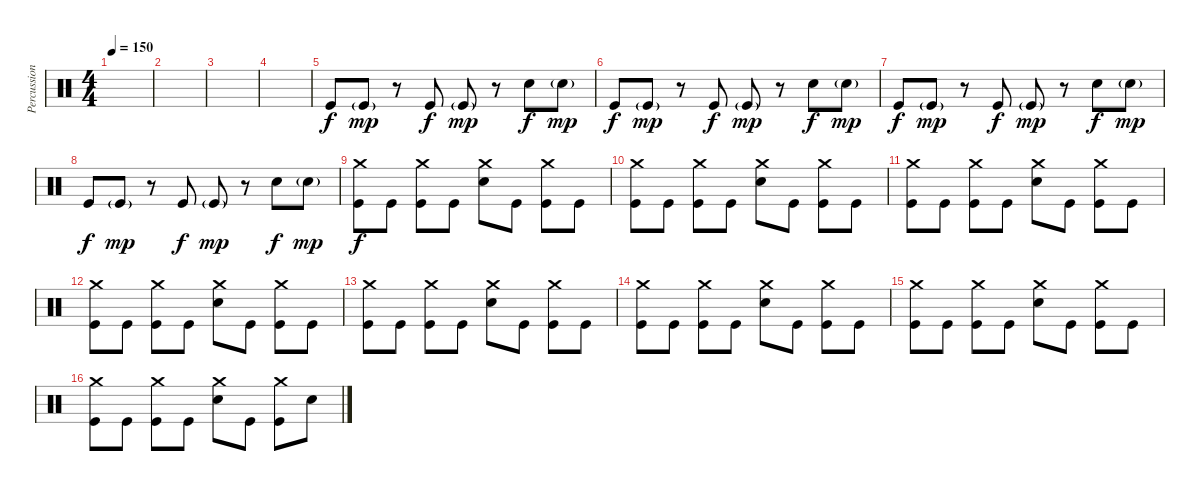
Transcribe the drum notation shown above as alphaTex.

\track ("Percussion" "Percussion") {instrument percussion}
\staff {score}
\articulation defaults
\ts (4 4)
\tempo 150
\clef neutral
\ks c
|
|
|
|
"Kick (hit)".8 "Kick (hit)"{g}.8{dy mp} r.8 "Kick (hit)".8{dy f} "Kick (hit)"{g}.8{dy mp} r.8 "Snare (hit) 2".8{dy f} "Snare (hit) 2"{g}.8{dy mp} |
"Kick (hit)".8{dy f} "Kick (hit)"{g}.8{dy mp} r.8 "Kick (hit)".8{dy f} "Kick (hit)"{g}.8{dy mp} r.8 "Snare (hit) 2".8{dy f} "Snare (hit) 2"{g}.8{dy mp} |
"Kick (hit)".8{dy f} "Kick (hit)"{g}.8{dy mp} r.8 "Kick (hit)".8{dy f} "Kick (hit)"{g}.8{dy mp} r.8 "Snare (hit) 2".8{dy f} "Snare (hit) 2"{g}.8{dy mp} |
"Kick (hit)".8{dy f} "Kick (hit)"{g}.8{dy mp} r.8 "Kick (hit)".8{dy f} "Kick (hit)"{g}.8{dy mp} r.8 "Snare (hit) 2".8{dy f} "Snare (hit) 2"{g}.8{dy mp} |
("Crash medium (hit)" "Kick (hit)").8{dy f} "Kick (hit)".8 ("Crash medium (hit)" "Kick (hit)").8 "Kick (hit)".8 ("Crash medium (hit)" "Electric Snare (hit)").8 "Kick (hit)".8 ("Crash medium (hit)" "Kick (hit)").8 "Kick (hit)".8 |
("Crash medium (hit)" "Kick (hit)").8 "Kick (hit)".8 ("Crash medium (hit)" "Kick (hit)").8 "Kick (hit)".8 ("Crash medium (hit)" "Electric Snare (hit)").8 "Kick (hit)".8 ("Crash medium (hit)" "Kick (hit)").8 "Kick (hit)".8 |
("Crash medium (hit)" "Kick (hit)").8 "Kick (hit)".8 ("Crash medium (hit)" "Kick (hit)").8 "Kick (hit)".8 ("Crash medium (hit)" "Electric Snare (hit)").8 "Kick (hit)".8 ("Crash medium (hit)" "Kick (hit)").8 "Kick (hit)".8 |
("Crash medium (hit)" "Kick (hit)").8 "Kick (hit)".8 ("Crash medium (hit)" "Kick (hit)").8 "Kick (hit)".8 ("Crash medium (hit)" "Electric Snare (hit)").8 "Kick (hit)".8 ("Crash medium (hit)" "Kick (hit)").8 "Kick (hit)".8 |
("Crash medium (hit)" "Kick (hit)").8 "Kick (hit)".8 ("Crash medium (hit)" "Kick (hit)").8 "Kick (hit)".8 ("Crash medium (hit)" "Electric Snare (hit)").8 "Kick (hit)".8 ("Crash medium (hit)" "Kick (hit)").8 "Kick (hit)".8 |
("Crash medium (hit)" "Kick (hit)").8 "Kick (hit)".8 ("Crash medium (hit)" "Kick (hit)").8 "Kick (hit)".8 ("Crash medium (hit)" "Electric Snare (hit)").8 "Kick (hit)".8 ("Crash medium (hit)" "Kick (hit)").8 "Kick (hit)".8 |
("Crash medium (hit)" "Kick (hit)").8 "Kick (hit)".8 ("Crash medium (hit)" "Kick (hit)").8 "Kick (hit)".8 ("Crash medium (hit)" "Electric Snare (hit)").8 "Kick (hit)".8 ("Crash medium (hit)" "Kick (hit)").8 "Kick (hit)".8 |
("Crash medium (hit)" "Kick (hit)").8 "Kick (hit)".8 ("Crash medium (hit)" "Kick (hit)").8 "Kick (hit)".8 ("Crash medium (hit)" "Electric Snare (hit)").8 "Kick (hit)".8 ("Crash medium (hit)" "Kick (hit)").8 "Electric Snare (hit)".8
